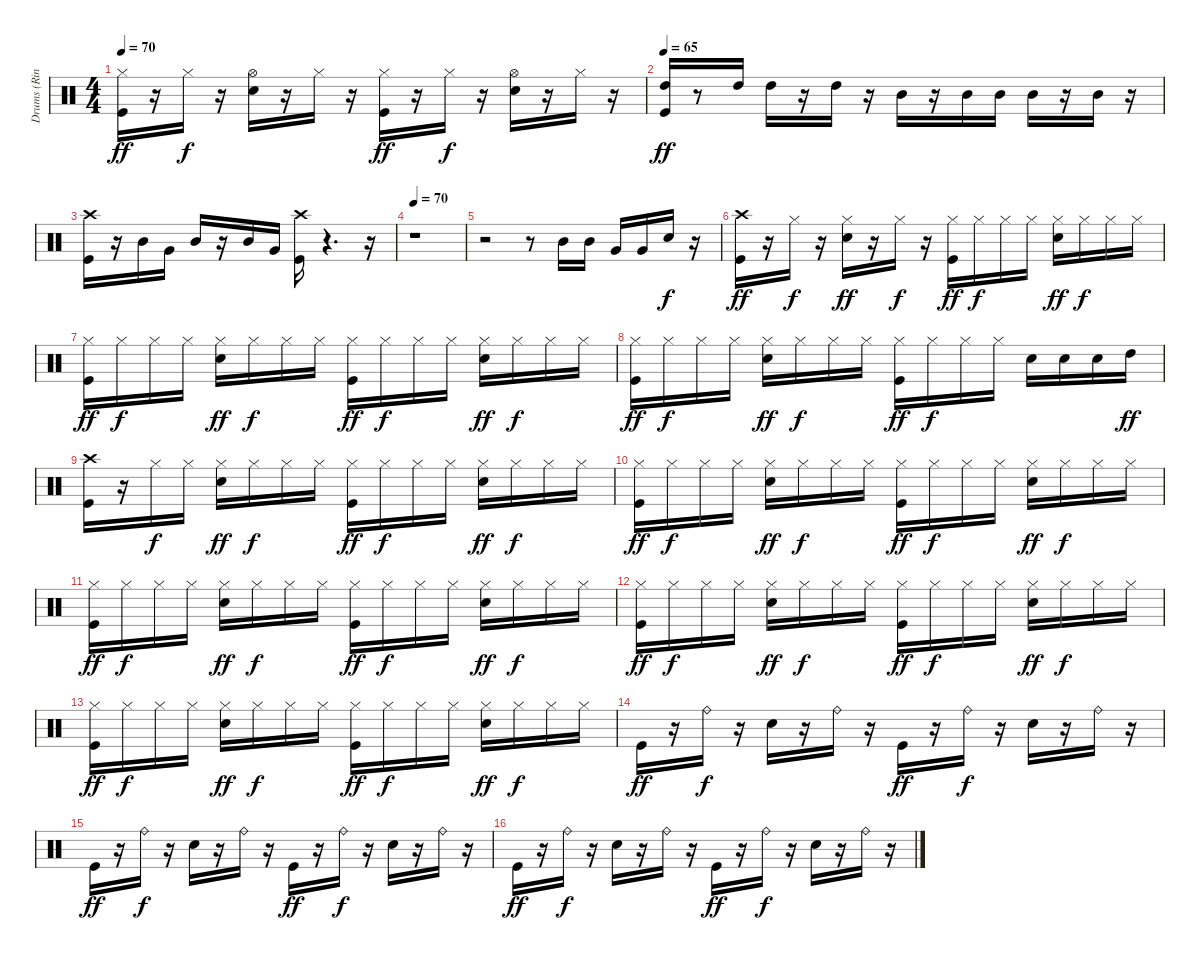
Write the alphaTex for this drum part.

\track ("Drums (Ringo)" "Drums (Rin") {instrument percussion}
\staff {score}
\articulation defaults
\ts (4 4)
\tempo 70
\clef neutral
\ks c
("Hi-Hat (closed)" "Kick (hit)").16{dy ff} r.16 "Hi-Hat (closed)".16{dy f} r.16 ("Hi-Hat (open)" "Snare (hit) 2").16 r.16 "Hi-Hat (closed)".16 r.16 ("Hi-Hat (closed)" "Kick (hit)").16{dy ff} r.16 "Hi-Hat (closed)".16{dy f} r.16 ("Hi-Hat (open)" "Snare (hit) 2").16 r.16 "Hi-Hat (closed)".16 r.16 |
\tempo 65
("Kick (hit)" "High Tom (hit)").16{dy ff} r.8 "High Tom (hit)".16 "High Tom (hit)".16 r.16 "High Tom (hit)".16 r.16 "Mid Tom (hit)".16 r.16 "Mid Tom (hit)".16 "Mid Tom (hit)".16 "Mid Tom (hit)".16 r.16 "Mid Tom (hit)".16 r.16 |
("Crash high (hit)" "Kick (hit)").16 r.16 "Mid Tom (hit)".16 "Very Low Tom (hit)".16 "Mid Tom (hit)".16 r.16 "Mid Tom (hit)".16 "Very Low Tom (hit)".16 ("Kick (hit)" "Crash high (hit)").16 r.4{d} r.16 |
\tempo 70
r.1 |
r.2 r.8 "Mid Tom (hit)".16 "Mid Tom (hit)".16 "Very Low Tom (hit)".16 "Very Low Tom (hit)".16 "Snare (hit) 2".16{dy f} r.16 |
("Kick (hit)" "Crash high (hit)").16{dy ff} r.16 "Hi-Hat (closed)".16{dy f} r.16 ("Hi-Hat (closed)" "Snare (hit) 2").16{dy ff} r.16 "Hi-Hat (closed)".16{dy f} r.16 ("Hi-Hat (closed)" "Kick (hit)").16{dy ff} "Hi-Hat (closed)".16{dy f} "Hi-Hat (closed)".16 "Hi-Hat (closed)".16 ("Hi-Hat (closed)" "Snare (hit) 2").16{dy ff} "Hi-Hat (closed)".16{dy f} "Hi-Hat (closed)".16 "Hi-Hat (closed)".16 |
("Hi-Hat (closed)" "Kick (hit)").16{dy ff} "Hi-Hat (closed)".16{dy f} "Hi-Hat (closed)".16 "Hi-Hat (closed)".16 ("Hi-Hat (closed)" "Snare (hit) 2").16{dy ff} "Hi-Hat (closed)".16{dy f} "Hi-Hat (closed)".16 "Hi-Hat (closed)".16 ("Hi-Hat (closed)" "Kick (hit)").16{dy ff} "Hi-Hat (closed)".16{dy f} "Hi-Hat (closed)".16 "Hi-Hat (closed)".16 ("Hi-Hat (closed)" "Snare (hit) 2").16{dy ff} "Hi-Hat (closed)".16{dy f} "Hi-Hat (closed)".16 "Hi-Hat (closed)".16 |
("Hi-Hat (closed)" "Kick (hit)").16{dy ff} "Hi-Hat (closed)".16{dy f} "Hi-Hat (closed)".16 "Hi-Hat (closed)".16 ("Hi-Hat (closed)" "Snare (hit) 2").16{dy ff} "Hi-Hat (closed)".16{dy f} "Hi-Hat (closed)".16 "Hi-Hat (closed)".16 ("Hi-Hat (closed)" "Kick (hit)").16{dy ff} "Hi-Hat (closed)".16{dy f} "Hi-Hat (closed)".16 "Hi-Hat (closed)".16 "Snare (hit) 2".16 "Snare (hit) 2".16 "Snare (hit) 2".16 "High Tom (hit)".16{dy ff} |
("Kick (hit)" "Crash high (hit)").16 r.16 "Hi-Hat (closed)".16{dy f} "Hi-Hat (closed)".16 ("Hi-Hat (closed)" "Snare (hit) 2").16{dy ff} "Hi-Hat (closed)".16{dy f} "Hi-Hat (closed)".16 "Hi-Hat (closed)".16 ("Hi-Hat (closed)" "Kick (hit)").16{dy ff} "Hi-Hat (closed)".16{dy f} "Hi-Hat (closed)".16 "Hi-Hat (closed)".16 ("Hi-Hat (closed)" "Snare (hit) 2").16{dy ff} "Hi-Hat (closed)".16{dy f} "Hi-Hat (closed)".16 "Hi-Hat (closed)".16 |
("Hi-Hat (closed)" "Kick (hit)").16{dy ff} "Hi-Hat (closed)".16{dy f} "Hi-Hat (closed)".16 "Hi-Hat (closed)".16 ("Hi-Hat (closed)" "Snare (hit) 2").16{dy ff} "Hi-Hat (closed)".16{dy f} "Hi-Hat (closed)".16 "Hi-Hat (closed)".16 ("Hi-Hat (closed)" "Kick (hit)").16{dy ff} "Hi-Hat (closed)".16{dy f} "Hi-Hat (closed)".16 "Hi-Hat (closed)".16 ("Hi-Hat (closed)" "Snare (hit) 2").16{dy ff} "Hi-Hat (closed)".16{dy f} "Hi-Hat (closed)".16 "Hi-Hat (closed)".16 |
("Hi-Hat (closed)" "Kick (hit)").16{dy ff} "Hi-Hat (closed)".16{dy f} "Hi-Hat (closed)".16 "Hi-Hat (closed)".16 ("Hi-Hat (closed)" "Snare (hit) 2").16{dy ff} "Hi-Hat (closed)".16{dy f} "Hi-Hat (closed)".16 "Hi-Hat (closed)".16 ("Hi-Hat (closed)" "Kick (hit)").16{dy ff} "Hi-Hat (closed)".16{dy f} "Hi-Hat (closed)".16 "Hi-Hat (closed)".16 ("Hi-Hat (closed)" "Snare (hit) 2").16{dy ff} "Hi-Hat (closed)".16{dy f} "Hi-Hat (closed)".16 "Hi-Hat (closed)".16 |
("Hi-Hat (closed)" "Kick (hit)").16{dy ff} "Hi-Hat (closed)".16{dy f} "Hi-Hat (closed)".16 "Hi-Hat (closed)".16 ("Hi-Hat (closed)" "Snare (hit) 2").16{dy ff} "Hi-Hat (closed)".16{dy f} "Hi-Hat (closed)".16 "Hi-Hat (closed)".16 ("Hi-Hat (closed)" "Kick (hit)").16{dy ff} "Hi-Hat (closed)".16{dy f} "Hi-Hat (closed)".16 "Hi-Hat (closed)".16 ("Hi-Hat (closed)" "Snare (hit) 2").16{dy ff} "Hi-Hat (closed)".16{dy f} "Hi-Hat (closed)".16 "Hi-Hat (closed)".16 |
("Hi-Hat (closed)" "Kick (hit)").16{dy ff} "Hi-Hat (closed)".16{dy f} "Hi-Hat (closed)".16 "Hi-Hat (closed)".16 ("Hi-Hat (closed)" "Snare (hit) 2").16{dy ff} "Hi-Hat (closed)".16{dy f} "Hi-Hat (closed)".16 "Hi-Hat (closed)".16 ("Hi-Hat (closed)" "Kick (hit)").16{dy ff} "Hi-Hat (closed)".16{dy f} "Hi-Hat (closed)".16 "Hi-Hat (closed)".16 ("Hi-Hat (closed)" "Snare (hit) 2").16{dy ff} "Hi-Hat (closed)".16{dy f} "Hi-Hat (closed)".16 "Hi-Hat (closed)".16 |
"Kick (hit)".16{dy ff} r.16 "Ride (bell)".16{dy f} r.16 "Snare (hit) 2".16 r.16 "Ride (bell)".16 r.16 "Kick (hit)".16{dy ff} r.16 "Ride (bell)".16{dy f} r.16 "Snare (hit) 2".16 r.16 "Ride (bell)".16 r.16 |
"Kick (hit)".16{dy ff} r.16 "Ride (bell)".16{dy f} r.16 "Snare (hit) 2".16 r.16 "Ride (bell)".16 r.16 "Kick (hit)".16{dy ff} r.16 "Ride (bell)".16{dy f} r.16 "Snare (hit) 2".16 r.16 "Ride (bell)".16 r.16 |
"Kick (hit)".16{dy ff} r.16 "Ride (bell)".16{dy f} r.16 "Snare (hit) 2".16 r.16 "Ride (bell)".16 r.16 "Kick (hit)".16{dy ff} r.16 "Ride (bell)".16{dy f} r.16 "Snare (hit) 2".16 r.16 "Ride (bell)".16 r.16
